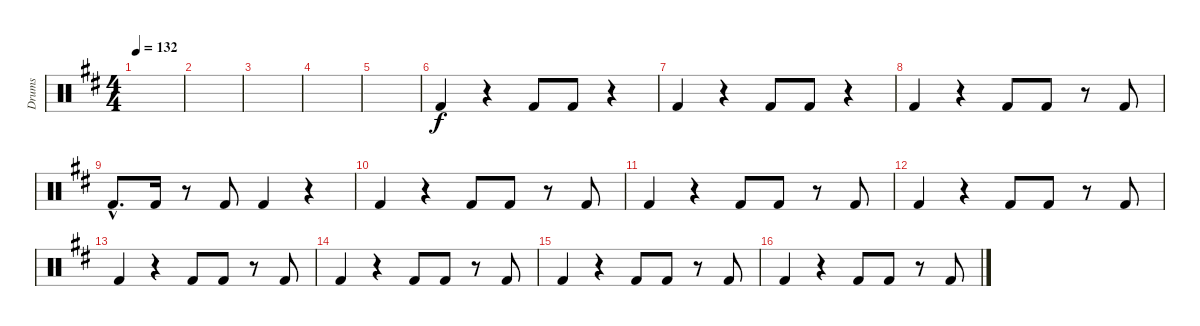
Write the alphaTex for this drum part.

\track ("Drums" "Drums") {instrument percussion}
\staff {score}
\articulation defaults
\ts (4 4)
\tempo 132
\clef neutral
\ks d
|
|
|
|
|
"Kick (hit) 2".4 r.4 "Kick (hit) 2".8 "Kick (hit) 2".8 r.4 |
"Kick (hit) 2".4 r.4 "Kick (hit) 2".8 "Kick (hit) 2".8 r.4 |
"Kick (hit) 2".4 r.4 "Kick (hit) 2".8 "Kick (hit) 2".8 r.8 "Kick (hit) 2".8 |
"Kick (hit) 2"{hac}.8{d} "Kick (hit) 2".16 r.8 "Kick (hit) 2".8 "Kick (hit) 2".4 r.4 |
"Kick (hit) 2".4 r.4 "Kick (hit) 2".8 "Kick (hit) 2".8 r.8 "Kick (hit) 2".8 |
"Kick (hit) 2".4 r.4 "Kick (hit) 2".8 "Kick (hit) 2".8 r.8 "Kick (hit) 2".8 |
"Kick (hit) 2".4 r.4 "Kick (hit) 2".8 "Kick (hit) 2".8 r.8 "Kick (hit) 2".8 |
"Kick (hit) 2".4 r.4 "Kick (hit) 2".8 "Kick (hit) 2".8 r.8 "Kick (hit) 2".8 |
"Kick (hit) 2".4 r.4 "Kick (hit) 2".8 "Kick (hit) 2".8 r.8 "Kick (hit) 2".8 |
"Kick (hit) 2".4 r.4 "Kick (hit) 2".8 "Kick (hit) 2".8 r.8 "Kick (hit) 2".8 |
"Kick (hit) 2".4 r.4 "Kick (hit) 2".8 "Kick (hit) 2".8 r.8 "Kick (hit) 2".8
